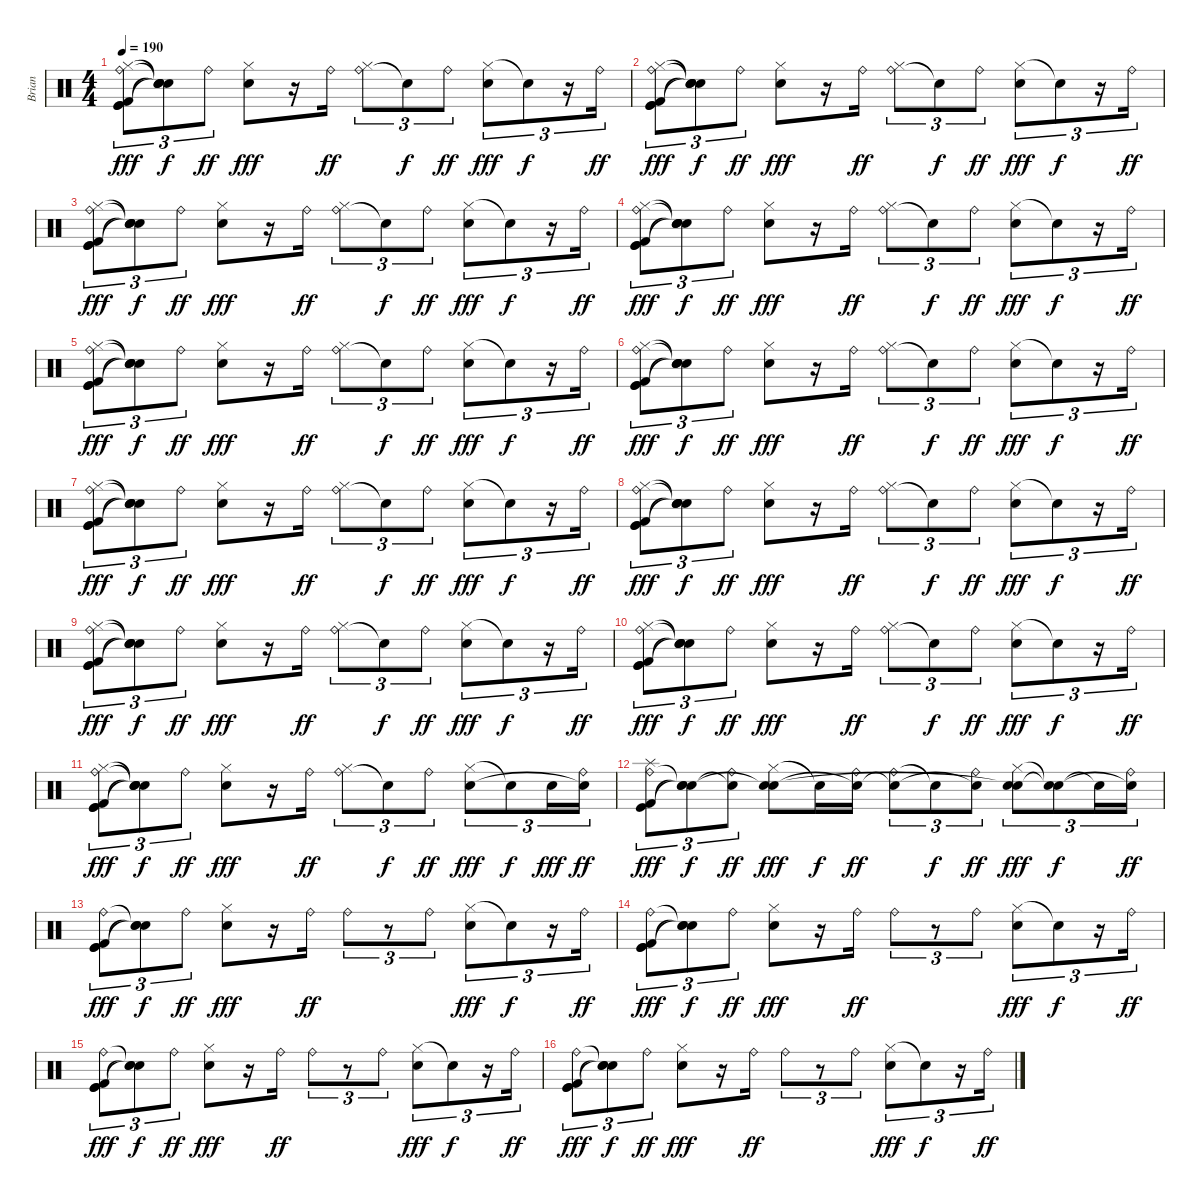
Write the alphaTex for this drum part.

\track ("Brian" "Brian") {instrument percussion}
\staff {score}
\articulation defaults
\ts (4 4)
\tempo 190
\clef neutral
\ks c
("Ride (bell)" "Hi-Hat (closed)" "Kick (hit)" "Kick (hit) 2" "Kick (hit)").8{tu (3 2) dy fff} ("Snare (hit)"{t} "Snare (hit)"{t} "Snare (hit)"{t} "Snare (hit)"{t}).8{tu (3 2) dy f} "Ride (bell)".8{tu (3 2) dy ff} ("Hi-Hat (closed)" "Electric Snare (hit)").8{dy fff} r.16 "Ride (bell)".16{dy ff} ("Ride (bell)" "Hi-Hat (closed)").8{tu (3 2)} "Snare (hit)"{t}.8{tu (3 2) dy f} "Ride (bell)".8{tu (3 2) dy ff} ("Hi-Hat (closed)" "Electric Snare (hit)").8{tu (3 2) dy fff} "Snare (hit)"{t}.8{tu (3 2) dy f} r.16{tu (3 2)} "Ride (bell)".16{tu (3 2) dy ff} |
("Ride (bell)" "Hi-Hat (closed)" "Kick (hit)" "Kick (hit) 2" "Kick (hit)").8{tu (3 2) dy fff} ("Snare (hit)"{t} "Snare (hit)"{t} "Snare (hit)"{t} "Snare (hit)"{t}).8{tu (3 2) dy f} "Ride (bell)".8{tu (3 2) dy ff} ("Hi-Hat (closed)" "Electric Snare (hit)").8{dy fff} r.16 "Ride (bell)".16{dy ff} ("Ride (bell)" "Hi-Hat (closed)").8{tu (3 2)} "Snare (hit)"{t}.8{tu (3 2) dy f} "Ride (bell)".8{tu (3 2) dy ff} ("Hi-Hat (closed)" "Electric Snare (hit)").8{tu (3 2) dy fff} "Snare (hit)"{t}.8{tu (3 2) dy f} r.16{tu (3 2)} "Ride (bell)".16{tu (3 2) dy ff} |
("Ride (bell)" "Hi-Hat (closed)" "Kick (hit)" "Kick (hit) 2" "Kick (hit)").8{tu (3 2) dy fff} ("Snare (hit)"{t} "Snare (hit)"{t} "Snare (hit)"{t} "Snare (hit)"{t}).8{tu (3 2) dy f} "Ride (bell)".8{tu (3 2) dy ff} ("Hi-Hat (closed)" "Electric Snare (hit)").8{dy fff} r.16 "Ride (bell)".16{dy ff} ("Ride (bell)" "Hi-Hat (closed)").8{tu (3 2)} "Snare (hit)"{t}.8{tu (3 2) dy f} "Ride (bell)".8{tu (3 2) dy ff} ("Hi-Hat (closed)" "Electric Snare (hit)").8{tu (3 2) dy fff} "Snare (hit)"{t}.8{tu (3 2) dy f} r.16{tu (3 2)} "Ride (bell)".16{tu (3 2) dy ff} |
("Ride (bell)" "Hi-Hat (closed)" "Kick (hit)" "Kick (hit) 2" "Kick (hit)").8{tu (3 2) dy fff} ("Snare (hit)"{t} "Snare (hit)"{t} "Snare (hit)"{t} "Snare (hit)"{t}).8{tu (3 2) dy f} "Ride (bell)".8{tu (3 2) dy ff} ("Hi-Hat (closed)" "Electric Snare (hit)").8{dy fff} r.16 "Ride (bell)".16{dy ff} ("Ride (bell)" "Hi-Hat (closed)").8{tu (3 2)} "Snare (hit)"{t}.8{tu (3 2) dy f} "Ride (bell)".8{tu (3 2) dy ff} ("Hi-Hat (closed)" "Electric Snare (hit)").8{tu (3 2) dy fff} "Snare (hit)"{t}.8{tu (3 2) dy f} r.16{tu (3 2)} "Ride (bell)".16{tu (3 2) dy ff} |
("Ride (bell)" "Hi-Hat (closed)" "Kick (hit)" "Kick (hit) 2" "Kick (hit)").8{tu (3 2) dy fff} ("Snare (hit)"{t} "Snare (hit)"{t} "Snare (hit)"{t} "Snare (hit)"{t}).8{tu (3 2) dy f} "Ride (bell)".8{tu (3 2) dy ff} ("Hi-Hat (closed)" "Electric Snare (hit)").8{dy fff} r.16 "Ride (bell)".16{dy ff} ("Ride (bell)" "Hi-Hat (closed)").8{tu (3 2)} "Snare (hit)"{t}.8{tu (3 2) dy f} "Ride (bell)".8{tu (3 2) dy ff} ("Hi-Hat (closed)" "Electric Snare (hit)").8{tu (3 2) dy fff} "Snare (hit)"{t}.8{tu (3 2) dy f} r.16{tu (3 2)} "Ride (bell)".16{tu (3 2) dy ff} |
("Ride (bell)" "Hi-Hat (closed)" "Kick (hit)" "Kick (hit) 2" "Kick (hit)").8{tu (3 2) dy fff} ("Snare (hit)"{t} "Snare (hit)"{t} "Snare (hit)"{t} "Snare (hit)"{t}).8{tu (3 2) dy f} "Ride (bell)".8{tu (3 2) dy ff} ("Hi-Hat (closed)" "Electric Snare (hit)").8{dy fff} r.16 "Ride (bell)".16{dy ff} ("Ride (bell)" "Hi-Hat (closed)").8{tu (3 2)} "Snare (hit)"{t}.8{tu (3 2) dy f} "Ride (bell)".8{tu (3 2) dy ff} ("Hi-Hat (closed)" "Electric Snare (hit)").8{tu (3 2) dy fff} "Snare (hit)"{t}.8{tu (3 2) dy f} r.16{tu (3 2)} "Ride (bell)".16{tu (3 2) dy ff} |
("Ride (bell)" "Hi-Hat (closed)" "Kick (hit)" "Kick (hit) 2" "Kick (hit)").8{tu (3 2) dy fff} ("Snare (hit)"{t} "Snare (hit)"{t} "Snare (hit)"{t} "Snare (hit)"{t}).8{tu (3 2) dy f} "Ride (bell)".8{tu (3 2) dy ff} ("Hi-Hat (closed)" "Electric Snare (hit)").8{dy fff} r.16 "Ride (bell)".16{dy ff} ("Ride (bell)" "Hi-Hat (closed)").8{tu (3 2)} "Snare (hit)"{t}.8{tu (3 2) dy f} "Ride (bell)".8{tu (3 2) dy ff} ("Hi-Hat (closed)" "Electric Snare (hit)").8{tu (3 2) dy fff} "Snare (hit)"{t}.8{tu (3 2) dy f} r.16{tu (3 2)} "Ride (bell)".16{tu (3 2) dy ff} |
("Ride (bell)" "Hi-Hat (closed)" "Kick (hit)" "Kick (hit) 2" "Kick (hit)").8{tu (3 2) dy fff} ("Snare (hit)"{t} "Snare (hit)"{t} "Snare (hit)"{t} "Snare (hit)"{t}).8{tu (3 2) dy f} "Ride (bell)".8{tu (3 2) dy ff} ("Hi-Hat (closed)" "Electric Snare (hit)").8{dy fff} r.16 "Ride (bell)".16{dy ff} ("Ride (bell)" "Hi-Hat (closed)").8{tu (3 2)} "Snare (hit)"{t}.8{tu (3 2) dy f} "Ride (bell)".8{tu (3 2) dy ff} ("Hi-Hat (closed)" "Electric Snare (hit)").8{tu (3 2) dy fff} "Snare (hit)"{t}.8{tu (3 2) dy f} r.16{tu (3 2)} "Ride (bell)".16{tu (3 2) dy ff} |
("Ride (bell)" "Hi-Hat (closed)" "Kick (hit)" "Kick (hit) 2" "Kick (hit)").8{tu (3 2) dy fff} ("Snare (hit)"{t} "Snare (hit)"{t} "Snare (hit)"{t} "Snare (hit)"{t}).8{tu (3 2) dy f} "Ride (bell)".8{tu (3 2) dy ff} ("Hi-Hat (closed)" "Electric Snare (hit)").8{dy fff} r.16 "Ride (bell)".16{dy ff} ("Ride (bell)" "Hi-Hat (closed)").8{tu (3 2)} "Snare (hit)"{t}.8{tu (3 2) dy f} "Ride (bell)".8{tu (3 2) dy ff} ("Hi-Hat (closed)" "Electric Snare (hit)").8{tu (3 2) dy fff} "Snare (hit)"{t}.8{tu (3 2) dy f} r.16{tu (3 2)} "Ride (bell)".16{tu (3 2) dy ff} |
("Ride (bell)" "Hi-Hat (closed)" "Kick (hit)" "Kick (hit) 2" "Kick (hit)").8{tu (3 2) dy fff} ("Snare (hit)"{t} "Snare (hit)"{t} "Snare (hit)"{t} "Snare (hit)"{t}).8{tu (3 2) dy f} "Ride (bell)".8{tu (3 2) dy ff} ("Hi-Hat (closed)" "Electric Snare (hit)").8{dy fff} r.16 "Ride (bell)".16{dy ff} ("Ride (bell)" "Hi-Hat (closed)").8{tu (3 2)} "Snare (hit)"{t}.8{tu (3 2) dy f} "Ride (bell)".8{tu (3 2) dy ff} ("Hi-Hat (closed)" "Electric Snare (hit)").8{tu (3 2) dy fff} "Snare (hit)"{t}.8{tu (3 2) dy f} r.16{tu (3 2)} "Ride (bell)".16{tu (3 2) dy ff} |
("Ride (bell)" "Hi-Hat (closed)" "Kick (hit)" "Kick (hit) 2" "Kick (hit)").8{tu (3 2) dy fff} ("Snare (hit)"{t} "Snare (hit)"{t} "Snare (hit)"{t} "Snare (hit)"{t}).8{tu (3 2) dy f} "Ride (bell)".8{tu (3 2) dy ff} ("Hi-Hat (closed)" "Electric Snare (hit)").8{dy fff} r.16 "Ride (bell)".16{dy ff} ("Ride (bell)" "Hi-Hat (closed)").8{tu (3 2)} "Snare (hit)"{t}.8{tu (3 2) dy f} "Ride (bell)".8{tu (3 2) dy ff} ("Hi-Hat (closed)" "Electric Snare (hit)").8{tu (3 2) dy fff} "Snare (hit)"{t}.8{tu (3 2) dy f} "Electric Snare (hit)".16{tu (3 2) dy fff} ("Ride (bell)" "Snare (hit)"{t}).16{tu (3 2) dy ff} |
("Ride (bell)" "Kick (hit)" "Kick (hit) 2" "Splash (hit)").8{tu (3 2) dy fff} ("Snare (hit)"{t} "Snare (hit)"{t} "Snare (hit)"{t}).8{tu (3 2) dy f} ("Ride (bell)" "Snare (hit)"{t}).8{tu (3 2) dy ff} ("Hi-Hat (closed)" "Electric Snare (hit)" "Snare (hit)"{t}).8{dy fff} "Snare (hit)"{t}.16{dy f} ("Ride (bell)" "Snare (hit)"{t}).16{dy ff} ("Ride (bell)" "Snare (hit)"{t}).8{tu (3 2)} "Snare (hit)"{t}.8{tu (3 2) dy f} ("Ride (bell)" "Snare (hit)"{t}).8{tu (3 2) dy ff} ("Hi-Hat (closed)" "Electric Snare (hit)" "Snare (hit)"{t}).8{tu (3 2) dy fff} ("Snare (hit)"{t} "Snare (hit)"{t}).8{tu (3 2) dy f} "Snare (hit)"{t}.16{tu (3 2)} ("Ride (bell)" "Snare (hit)"{t}).16{tu (3 2) dy ff} |
("Ride (bell)" "Kick (hit)" "Kick (hit) 2" "Kick (hit)").8{tu (3 2) dy fff} ("Snare (hit)"{t} "Snare (hit)"{t} "Snare (hit)"{t}).8{tu (3 2) dy f} "Ride (bell)".8{tu (3 2) dy ff} ("Hi-Hat (closed)" "Electric Snare (hit)").8{dy fff} r.16 "Ride (bell)".16{dy ff} "Ride (bell)".8{tu (3 2)} r.8{tu (3 2)} "Ride (bell)".8{tu (3 2)} ("Hi-Hat (closed)" "Electric Snare (hit)").8{tu (3 2) dy fff} "Snare (hit)"{t}.8{tu (3 2) dy f} r.16{tu (3 2)} "Ride (bell)".16{tu (3 2) dy ff} |
("Ride (bell)" "Kick (hit)" "Kick (hit) 2" "Kick (hit)").8{tu (3 2) dy fff} ("Snare (hit)"{t} "Snare (hit)"{t} "Snare (hit)"{t}).8{tu (3 2) dy f} "Ride (bell)".8{tu (3 2) dy ff} ("Hi-Hat (closed)" "Electric Snare (hit)").8{dy fff} r.16 "Ride (bell)".16{dy ff} "Ride (bell)".8{tu (3 2)} r.8{tu (3 2)} "Ride (bell)".8{tu (3 2)} ("Hi-Hat (closed)" "Electric Snare (hit)").8{tu (3 2) dy fff} "Snare (hit)"{t}.8{tu (3 2) dy f} r.16{tu (3 2)} "Ride (bell)".16{tu (3 2) dy ff} |
("Ride (bell)" "Kick (hit)" "Kick (hit) 2" "Kick (hit)").8{tu (3 2) dy fff} ("Snare (hit)"{t} "Snare (hit)"{t} "Snare (hit)"{t}).8{tu (3 2) dy f} "Ride (bell)".8{tu (3 2) dy ff} ("Hi-Hat (closed)" "Electric Snare (hit)").8{dy fff} r.16 "Ride (bell)".16{dy ff} "Ride (bell)".8{tu (3 2)} r.8{tu (3 2)} "Ride (bell)".8{tu (3 2)} ("Hi-Hat (closed)" "Electric Snare (hit)").8{tu (3 2) dy fff} "Snare (hit)"{t}.8{tu (3 2) dy f} r.16{tu (3 2)} "Ride (bell)".16{tu (3 2) dy ff} |
("Ride (bell)" "Kick (hit)" "Kick (hit) 2" "Kick (hit)").8{tu (3 2) dy fff} ("Snare (hit)"{t} "Snare (hit)"{t} "Snare (hit)"{t}).8{tu (3 2) dy f} "Ride (bell)".8{tu (3 2) dy ff} ("Hi-Hat (closed)" "Electric Snare (hit)").8{dy fff} r.16 "Ride (bell)".16{dy ff} "Ride (bell)".8{tu (3 2)} r.8{tu (3 2)} "Ride (bell)".8{tu (3 2)} ("Hi-Hat (closed)" "Electric Snare (hit)").8{tu (3 2) dy fff} "Snare (hit)"{t}.8{tu (3 2) dy f} r.16{tu (3 2)} "Ride (bell)".16{tu (3 2) dy ff}
